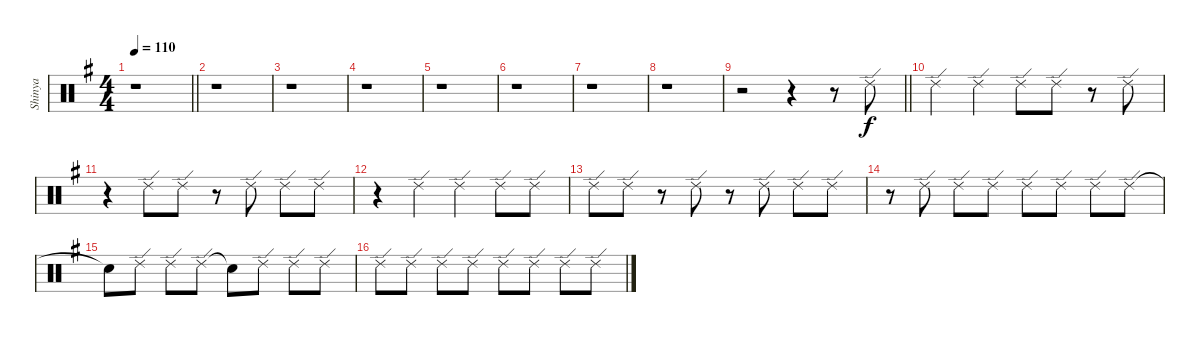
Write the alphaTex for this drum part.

\track ("Shinya" "Shinya") {instrument percussion}
\staff {score}
\articulation defaults
\ts (4 4)
\tempo 110
\clef neutral
\barLineRight lightlight
\ks g
r.1{dy f} |
r.1 |
r.1 |
r.1 |
r.1 |
r.1 |
r.1 |
r.1 |
\barLineRight lightlight
r.2 r.4 r.8 "Ride (edge) 2".8 |
"Ride (edge) 2".4 "Ride (edge) 2".4 "Ride (edge) 2".8 "Ride (edge) 2".8 r.8 "Ride (edge) 2".8 |
r.4 "Ride (edge) 2".8 "Ride (edge) 2".8 r.8 "Ride (edge) 2".8 "Ride (edge) 2".8 "Ride (edge) 2".8 |
r.4 "Ride (edge) 2".4 "Ride (edge) 2".4 "Ride (edge) 2".8 "Ride (edge) 2".8 |
"Ride (edge) 2".8 "Ride (edge) 2".8 r.8 "Ride (edge) 2".8 r.8 "Ride (edge) 2".8 "Ride (edge) 2".8 "Ride (edge) 2".8 |
r.8 "Ride (edge) 2".8 "Ride (edge) 2".8 "Ride (edge) 2".8 "Ride (edge) 2".8 "Ride (edge) 2".8 "Ride (edge) 2".8 "Ride (edge) 2".8 |
"Snare (hit)"{t}.8 "Ride (edge) 2".8 "Ride (edge) 2".8 "Ride (edge) 2".8 "Snare (hit)"{t}.8 "Ride (edge) 2".8 "Ride (edge) 2".8 "Ride (edge) 2".8 |
"Ride (edge) 2".8 "Ride (edge) 2".8 "Ride (edge) 2".8 "Ride (edge) 2".8 "Ride (edge) 2".8 "Ride (edge) 2".8 "Ride (edge) 2".8 "Ride (edge) 2".8
